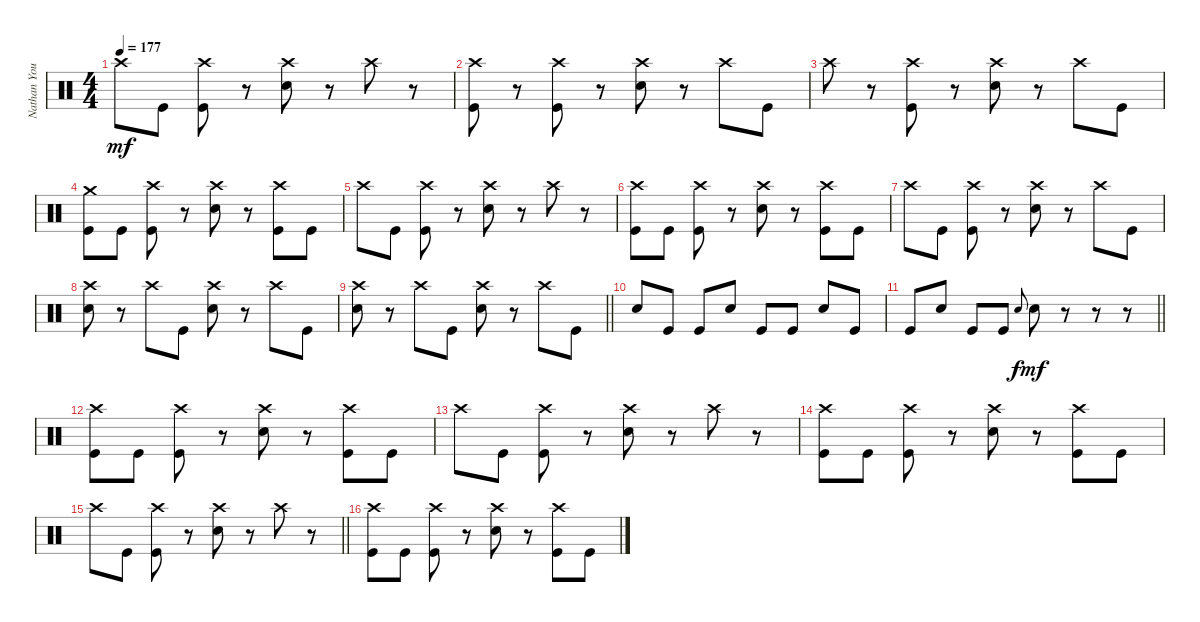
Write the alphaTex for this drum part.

\track ("Nathan Young" "Nathan You") {instrument percussion}
\staff {score}
\articulation defaults
\ts (4 4)
\tempo 177
\clef neutral
\ks c "Crash high (hit)".8{dy mf} "Kick (hit)".8
("Crash high (hit)" "Kick (hit)").8 r.8 ("Crash high (hit)" "Snare (hit) 2").8 r.8 "Crash high (hit)".8 r.8 |
("Crash high (hit)" "Kick (hit)").8 r.8 ("Crash high (hit)" "Kick (hit)").8 r.8 ("Crash high (hit)" "Snare (hit) 2").8 r.8 "Crash high (hit)".8 "Kick (hit)".8 |
"Crash high (hit)".8 r.8 ("Crash high (hit)" "Kick (hit)").8 r.8 ("Crash high (hit)" "Snare (hit) 2").8 r.8 "Crash high (hit)".8 "Kick (hit)".8 |
("Crash medium (hit)" "Kick (hit)").8 "Kick (hit)".8 ("Crash high (hit)" "Kick (hit)").8 r.8 ("Crash high (hit)" "Snare (hit) 2").8 r.8 ("Crash high (hit)" "Kick (hit)").8 "Kick (hit)".8 |
"Crash high (hit)".8 "Kick (hit)".8 ("Crash high (hit)" "Kick (hit)").8 r.8 ("Crash high (hit)" "Snare (hit) 2").8 r.8 "Crash high (hit)".8 r.8 |
("Crash high (hit)" "Kick (hit)").8 "Kick (hit)".8 ("Crash high (hit)" "Kick (hit)").8 r.8 ("Crash high (hit)" "Snare (hit) 2").8 r.8 ("Crash high (hit)" "Kick (hit)").8 "Kick (hit)".8 |
"Crash high (hit)".8 "Kick (hit)".8 ("Crash high (hit)" "Kick (hit)").8 r.8 ("Crash high (hit)" "Snare (hit) 2").8 r.8 "Crash high (hit)".8 "Kick (hit)".8 |
("Crash high (hit)" "Snare (hit) 2").8 r.8 "Crash high (hit)".8 "Kick (hit)".8 ("Crash high (hit)" "Snare (hit) 2").8 r.8 "Crash high (hit)".8 "Kick (hit)".8 |
\barLineRight lightlight
("Crash high (hit)" "Snare (hit) 2").8 r.8 "Crash high (hit)".8 "Kick (hit)".8 ("Crash high (hit)" "Snare (hit) 2").8 r.8 "Crash high (hit)".8 "Kick (hit)".8 |
"Snare (hit) 2".8 "Kick (hit)".8 "Kick (hit)".8 "Snare (hit) 2".8 "Kick (hit)".8 "Kick (hit)".8 "Snare (hit) 2".8 "Kick (hit)".8 |
\barLineRight lightlight "Kick (hit)".8 "Snare (hit) 2".8 "Kick (hit)".8 "Kick (hit)".8 "Snare (hit) 2".8{gr onbeat dy f} "Snare (hit) 2".8{dy mf}
r.8 r.8 r.8 |
("Crash high (hit)" "Kick (hit)").8 "Kick (hit)".8 ("Crash high (hit)" "Kick (hit)").8 r.8 ("Crash high (hit)" "Snare (hit) 2").8 r.8 ("Crash high (hit)" "Kick (hit)").8 "Kick (hit)".8 |
"Crash high (hit)".8 "Kick (hit)".8 ("Crash high (hit)" "Kick (hit)").8 r.8 ("Crash high (hit)" "Snare (hit) 2").8 r.8 "Crash high (hit)".8 r.8 |
("Crash high (hit)" "Kick (hit)").8 "Kick (hit)".8 ("Crash high (hit)" "Kick (hit)").8 r.8 ("Crash high (hit)" "Snare (hit) 2").8 r.8 ("Crash high (hit)" "Kick (hit)").8 "Kick (hit)".8 |
\barLineRight lightlight "Crash high (hit)".8 "Kick (hit)".8
("Crash high (hit)" "Kick (hit)").8 r.8 ("Crash high (hit)" "Snare (hit) 2").8 r.8 "Crash high (hit)".8 r.8 |
("Crash high (hit)" "Kick (hit)").8 "Kick (hit)".8 ("Crash high (hit)" "Kick (hit)").8 r.8 ("Crash high (hit)" "Snare (hit) 2").8 r.8 ("Crash high (hit)" "Kick (hit)").8 "Kick (hit)".8
